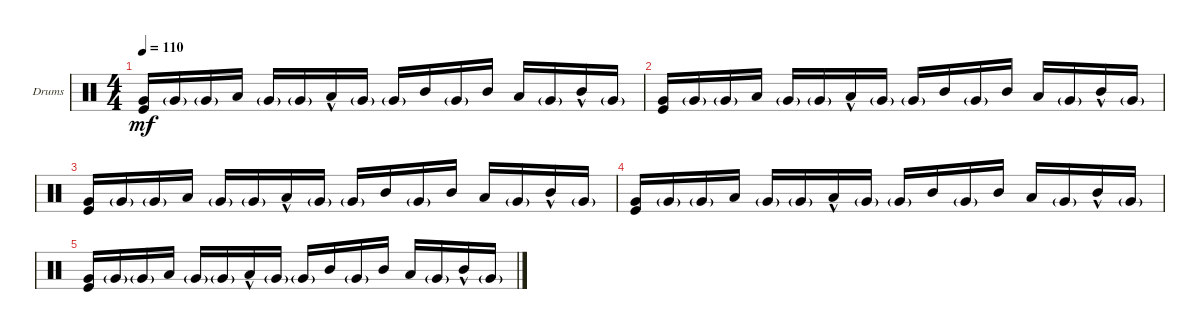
\defaultSystemsLayout 4
\bracketExtendMode groupsimilarinstruments
\firstSystemTrackNameOrientation horizontal
\otherSystemsTrackNameOrientation horizontal
\track ("Drumkit" "Drums") {instrument percussion}
\staff {score}
\articulation defaults
\ts (4 4)
\tempo 110
\clef neutral
\ks c
("Very Low Tom (hit)" "Kick (hit)").16{dy mf} "Very Low Tom (hit)"{g}.16 "Very Low Tom (hit)"{g}.16 "Low Tom (hit)".16 "Very Low Tom (hit)"{g}.16 "Very Low Tom (hit)"{g}.16 "Low Tom (hit)"{hac}.16 "Very Low Tom (hit)"{g}.16 "Very Low Tom (hit)"{g}.16 "Mid Tom (hit)".16 "Very Low Tom (hit)"{g}.16 "Mid Tom (hit)".16 "Low Tom (hit)".16 "Very Low Tom (hit)"{g}.16 "Mid Tom (hit)"{hac}.16 "Very Low Tom (hit)"{g}.16 |
("Very Low Tom (hit)" "Kick (hit)").16 "Very Low Tom (hit)"{g}.16 "Very Low Tom (hit)"{g}.16 "Low Tom (hit)".16 "Very Low Tom (hit)"{g}.16 "Very Low Tom (hit)"{g}.16 "Low Tom (hit)"{hac}.16 "Very Low Tom (hit)"{g}.16 "Very Low Tom (hit)"{g}.16 "Mid Tom (hit)".16 "Very Low Tom (hit)"{g}.16 "Mid Tom (hit)".16 "Low Tom (hit)".16 "Very Low Tom (hit)"{g}.16 "Mid Tom (hit)"{hac}.16 "Very Low Tom (hit)"{g}.16 |
("Very Low Tom (hit)" "Kick (hit)").16 "Very Low Tom (hit)"{g}.16 "Very Low Tom (hit)"{g}.16 "Low Tom (hit)".16 "Very Low Tom (hit)"{g}.16 "Very Low Tom (hit)"{g}.16 "Low Tom (hit)"{hac}.16 "Very Low Tom (hit)"{g}.16 "Very Low Tom (hit)"{g}.16 "Mid Tom (hit)".16 "Very Low Tom (hit)"{g}.16 "Mid Tom (hit)".16 "Low Tom (hit)".16 "Very Low Tom (hit)"{g}.16 "Mid Tom (hit)"{hac}.16 "Very Low Tom (hit)"{g}.16 |
("Very Low Tom (hit)" "Kick (hit)").16 "Very Low Tom (hit)"{g}.16 "Very Low Tom (hit)"{g}.16 "Low Tom (hit)".16 "Very Low Tom (hit)"{g}.16 "Very Low Tom (hit)"{g}.16 "Low Tom (hit)"{hac}.16 "Very Low Tom (hit)"{g}.16 "Very Low Tom (hit)"{g}.16 "Mid Tom (hit)".16 "Very Low Tom (hit)"{g}.16 "Mid Tom (hit)".16 "Low Tom (hit)".16 "Very Low Tom (hit)"{g}.16 "Mid Tom (hit)"{hac}.16 "Very Low Tom (hit)"{g}.16 |
("Very Low Tom (hit)" "Kick (hit)").16 "Very Low Tom (hit)"{g}.16 "Very Low Tom (hit)"{g}.16 "Low Tom (hit)".16 "Very Low Tom (hit)"{g}.16 "Very Low Tom (hit)"{g}.16 "Low Tom (hit)"{hac}.16 "Very Low Tom (hit)"{g}.16 "Very Low Tom (hit)"{g}.16 "Mid Tom (hit)".16 "Very Low Tom (hit)"{g}.16 "Mid Tom (hit)".16 "Low Tom (hit)".16 "Very Low Tom (hit)"{g}.16 "Mid Tom (hit)"{hac}.16 "Very Low Tom (hit)"{g}.16
